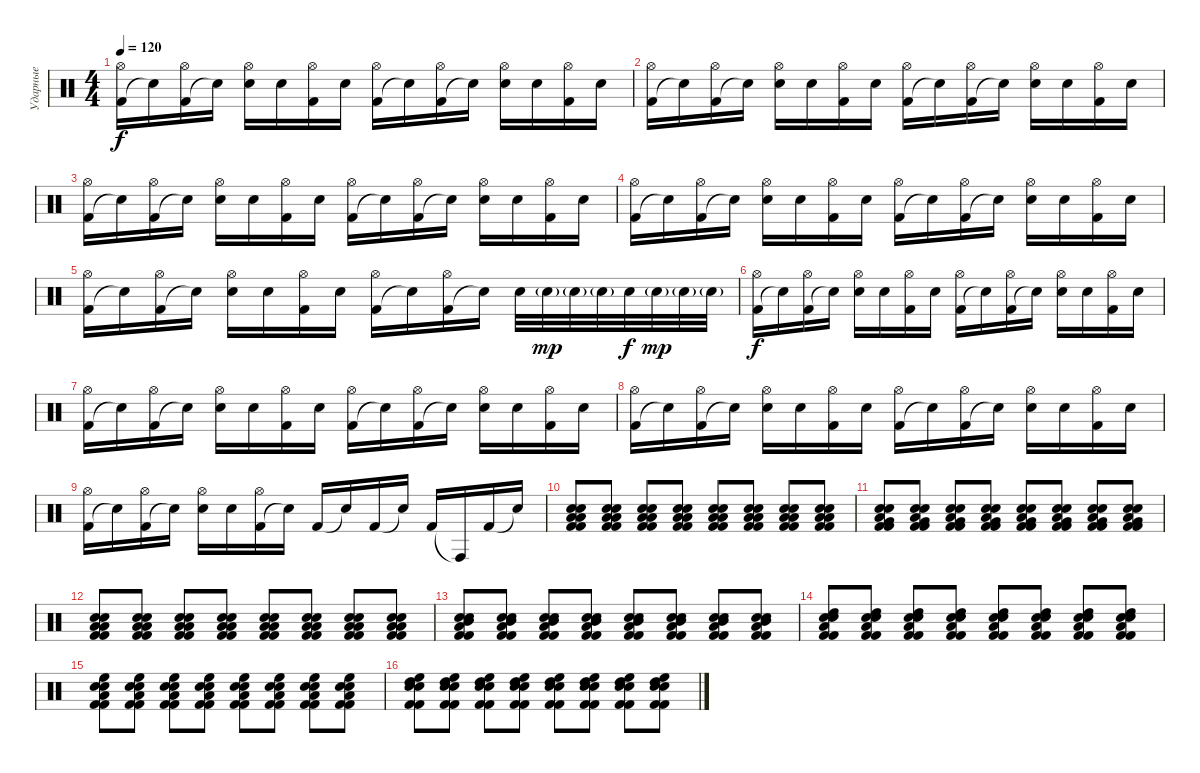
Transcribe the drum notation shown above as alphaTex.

\track ("Ударные" "Ударные") {instrument percussion}
\staff {score}
\articulation defaults
\ts (4 4)
\tempo 120
\clef neutral
\ks c
("Kick (hit) 2" "Hi-Hat (open)").16{dy f} "Snare (hit)"{t}.16 ("Kick (hit) 2" "Hi-Hat (open)").16 "Snare (hit)"{t}.16 ("Electric Snare (hit)" "Hi-Hat (open)").16 "Electric Snare (hit)".16 ("Kick (hit) 2" "Hi-Hat (open)").16 "Electric Snare (hit)".16 ("Kick (hit) 2" "Hi-Hat (open)").16 "Snare (hit)"{t}.16 ("Kick (hit) 2" "Hi-Hat (open)").16 "Snare (hit)"{t}.16 ("Electric Snare (hit)" "Hi-Hat (open)").16 "Electric Snare (hit)".16 ("Kick (hit) 2" "Hi-Hat (open)").16 "Electric Snare (hit)".16 |
("Kick (hit) 2" "Hi-Hat (open)").16 "Snare (hit)"{t}.16 ("Kick (hit) 2" "Hi-Hat (open)").16 "Snare (hit)"{t}.16 ("Electric Snare (hit)" "Hi-Hat (open)").16 "Electric Snare (hit)".16 ("Kick (hit) 2" "Hi-Hat (open)").16 "Electric Snare (hit)".16 ("Kick (hit) 2" "Hi-Hat (open)").16 "Snare (hit)"{t}.16 ("Kick (hit) 2" "Hi-Hat (open)").16 "Snare (hit)"{t}.16 ("Electric Snare (hit)" "Hi-Hat (open)").16 "Electric Snare (hit)".16 ("Kick (hit) 2" "Hi-Hat (open)").16 "Electric Snare (hit)".16 |
("Kick (hit) 2" "Hi-Hat (open)").16 "Snare (hit)"{t}.16 ("Kick (hit) 2" "Hi-Hat (open)").16 "Snare (hit)"{t}.16 ("Electric Snare (hit)" "Hi-Hat (open)").16 "Electric Snare (hit)".16 ("Kick (hit) 2" "Hi-Hat (open)").16 "Electric Snare (hit)".16 ("Kick (hit) 2" "Hi-Hat (open)").16 "Snare (hit)"{t}.16 ("Kick (hit) 2" "Hi-Hat (open)").16 "Snare (hit)"{t}.16 ("Electric Snare (hit)" "Hi-Hat (open)").16 "Electric Snare (hit)".16 ("Kick (hit) 2" "Hi-Hat (open)").16 "Electric Snare (hit)".16 |
("Kick (hit) 2" "Hi-Hat (open)").16 "Snare (hit)"{t}.16 ("Kick (hit) 2" "Hi-Hat (open)").16 "Snare (hit)"{t}.16 ("Electric Snare (hit)" "Hi-Hat (open)").16 "Electric Snare (hit)".16 ("Kick (hit) 2" "Hi-Hat (open)").16 "Electric Snare (hit)".16 ("Kick (hit) 2" "Hi-Hat (open)").16 "Snare (hit)"{t}.16 ("Kick (hit) 2" "Hi-Hat (open)").16 "Snare (hit)"{t}.16 ("Electric Snare (hit)" "Hi-Hat (open)").16 "Electric Snare (hit)".16 ("Kick (hit) 2" "Hi-Hat (open)").16 "Electric Snare (hit)".16 |
("Kick (hit) 2" "Hi-Hat (open)").16 "Snare (hit)"{t}.16 ("Kick (hit) 2" "Hi-Hat (open)").16 "Snare (hit)"{t}.16 ("Electric Snare (hit)" "Hi-Hat (open)").16 "Electric Snare (hit)".16 ("Kick (hit) 2" "Hi-Hat (open)").16 "Electric Snare (hit)".16 ("Kick (hit) 2" "Hi-Hat (open)").16 "Snare (hit)"{t}.16 ("Kick (hit) 2" "Hi-Hat (open)").16 "Snare (hit)"{t}.16 "Electric Snare (hit)".32 "Electric Snare (hit)"{g}.32{dy mp} "Electric Snare (hit)"{g}.32 "Electric Snare (hit)"{g}.32 "Electric Snare (hit)".32{dy f} "Electric Snare (hit)"{g}.32{dy mp} "Electric Snare (hit)"{g}.32 "Electric Snare (hit)"{g}.32 |
("Kick (hit) 2" "Hi-Hat (open)").16{dy f} "Snare (hit)"{t}.16 ("Kick (hit) 2" "Hi-Hat (open)").16 "Snare (hit)"{t}.16 ("Electric Snare (hit)" "Hi-Hat (open)").16 "Electric Snare (hit)".16 ("Kick (hit) 2" "Hi-Hat (open)").16 "Electric Snare (hit)".16 ("Kick (hit) 2" "Hi-Hat (open)").16 "Snare (hit)"{t}.16 ("Kick (hit) 2" "Hi-Hat (open)").16 "Snare (hit)"{t}.16 ("Electric Snare (hit)" "Hi-Hat (open)").16 "Electric Snare (hit)".16 ("Kick (hit) 2" "Hi-Hat (open)").16 "Electric Snare (hit)".16 |
("Kick (hit) 2" "Hi-Hat (open)").16 "Snare (hit)"{t}.16 ("Kick (hit) 2" "Hi-Hat (open)").16 "Snare (hit)"{t}.16 ("Electric Snare (hit)" "Hi-Hat (open)").16 "Electric Snare (hit)".16 ("Kick (hit) 2" "Hi-Hat (open)").16 "Electric Snare (hit)".16 ("Kick (hit) 2" "Hi-Hat (open)").16 "Snare (hit)"{t}.16 ("Kick (hit) 2" "Hi-Hat (open)").16 "Snare (hit)"{t}.16 ("Electric Snare (hit)" "Hi-Hat (open)").16 "Electric Snare (hit)".16 ("Kick (hit) 2" "Hi-Hat (open)").16 "Electric Snare (hit)".16 |
("Kick (hit) 2" "Hi-Hat (open)").16 "Snare (hit)"{t}.16 ("Kick (hit) 2" "Hi-Hat (open)").16 "Snare (hit)"{t}.16 ("Electric Snare (hit)" "Hi-Hat (open)").16 "Electric Snare (hit)".16 ("Kick (hit) 2" "Hi-Hat (open)").16 "Electric Snare (hit)".16 ("Kick (hit) 2" "Hi-Hat (open)").16 "Snare (hit)"{t}.16 ("Kick (hit) 2" "Hi-Hat (open)").16 "Snare (hit)"{t}.16 ("Electric Snare (hit)" "Hi-Hat (open)").16 "Electric Snare (hit)".16 ("Kick (hit) 2" "Hi-Hat (open)").16 "Electric Snare (hit)".16 |
("Kick (hit) 2" "Hi-Hat (open)").16 "Snare (hit)"{t}.16 ("Kick (hit) 2" "Hi-Hat (open)").16 "Snare (hit)"{t}.16 ("Electric Snare (hit)" "Hi-Hat (open)").16 "Electric Snare (hit)".16 ("Kick (hit) 2" "Hi-Hat (open)").16 "Electric Snare (hit)"{t}.16 "Kick (hit) 2".16 "Electric Snare (hit)"{t}.16 "Kick (hit) 2".16 "Electric Snare (hit)"{t}.16 "Kick (hit) 2".16 "Conga high (hit)"{t}.16 "Kick (hit) 2".16 "Electric Snare (hit)"{t}.16 |
("Kick (hit) 2" "Kick (hit) 2" "Electric Snare (hit)" "Electric Snare (hit)" "Low Floor Tom (hit)" "Low Floor Tom (hit)").8 ("Kick (hit) 2" "Kick (hit) 2" "Electric Snare (hit)" "Electric Snare (hit)" "Low Floor Tom (hit)" "Low Floor Tom (hit)").8 ("Kick (hit) 2" "Kick (hit) 2" "Electric Snare (hit)" "Electric Snare (hit)" "Low Floor Tom (hit)" "Low Floor Tom (hit)").8 ("Kick (hit) 2" "Kick (hit) 2" "Electric Snare (hit)" "Electric Snare (hit)" "Low Floor Tom (hit)" "Low Floor Tom (hit)").8 ("Kick (hit) 2" "Kick (hit) 2" "Electric Snare (hit)" "Electric Snare (hit)" "Low Floor Tom (hit)" "Low Floor Tom (hit)").8 ("Kick (hit) 2" "Kick (hit) 2" "Electric Snare (hit)" "Electric Snare (hit)" "Low Floor Tom (hit)" "Low Floor Tom (hit)").8 ("Kick (hit) 2" "Kick (hit) 2" "Electric Snare (hit)" "Electric Snare (hit)" "Low Floor Tom (hit)" "Low Floor Tom (hit)").8 ("Kick (hit) 2" "Kick (hit) 2" "Electric Snare (hit)" "Electric Snare (hit)" "Low Floor Tom (hit)" "Low Floor Tom (hit)").8 |
("Kick (hit) 2" "Kick (hit) 2" "Electric Snare (hit)" "Electric Snare (hit)" "Low Floor Tom (hit)" "Very Low Tom (hit)").8 ("Kick (hit) 2" "Kick (hit) 2" "Electric Snare (hit)" "Electric Snare (hit)" "Low Floor Tom (hit)" "Very Low Tom (hit)").8 ("Kick (hit) 2" "Kick (hit) 2" "Electric Snare (hit)" "Electric Snare (hit)" "Low Floor Tom (hit)" "Very Low Tom (hit)").8 ("Kick (hit) 2" "Kick (hit) 2" "Electric Snare (hit)" "Electric Snare (hit)" "Low Floor Tom (hit)" "Very Low Tom (hit)").8 ("Kick (hit) 2" "Kick (hit) 2" "Electric Snare (hit)" "Electric Snare (hit)" "Low Floor Tom (hit)" "Very Low Tom (hit)").8 ("Kick (hit) 2" "Kick (hit) 2" "Electric Snare (hit)" "Electric Snare (hit)" "Low Floor Tom (hit)" "Very Low Tom (hit)").8 ("Kick (hit) 2" "Kick (hit) 2" "Electric Snare (hit)" "Electric Snare (hit)" "Low Floor Tom (hit)" "Very Low Tom (hit)").8 ("Kick (hit) 2" "Kick (hit) 2" "Electric Snare (hit)" "Electric Snare (hit)" "Low Floor Tom (hit)" "Very Low Tom (hit)").8 |
("Kick (hit) 2" "Kick (hit) 2" "Electric Snare (hit)" "Electric Snare (hit)" "Low Floor Tom (hit)" "Low Tom (hit)").8 ("Kick (hit) 2" "Kick (hit) 2" "Electric Snare (hit)" "Electric Snare (hit)" "Low Floor Tom (hit)" "Low Tom (hit)").8 ("Kick (hit) 2" "Kick (hit) 2" "Electric Snare (hit)" "Electric Snare (hit)" "Low Floor Tom (hit)" "Low Tom (hit)").8 ("Kick (hit) 2" "Kick (hit) 2" "Electric Snare (hit)" "Electric Snare (hit)" "Low Floor Tom (hit)" "Low Tom (hit)").8 ("Kick (hit) 2" "Kick (hit) 2" "Electric Snare (hit)" "Electric Snare (hit)" "Low Floor Tom (hit)" "Low Tom (hit)").8 ("Kick (hit) 2" "Kick (hit) 2" "Electric Snare (hit)" "Electric Snare (hit)" "Low Floor Tom (hit)" "Low Tom (hit)").8 ("Kick (hit) 2" "Kick (hit) 2" "Electric Snare (hit)" "Electric Snare (hit)" "Low Floor Tom (hit)" "Low Tom (hit)").8 ("Kick (hit) 2" "Kick (hit) 2" "Electric Snare (hit)" "Electric Snare (hit)" "Low Floor Tom (hit)" "Low Tom (hit)").8 |
("Kick (hit) 2" "Kick (hit) 2" "Electric Snare (hit)" "Electric Snare (hit)" "Low Floor Tom (hit)" "Mid Tom (hit)").8 ("Kick (hit) 2" "Kick (hit) 2" "Electric Snare (hit)" "Electric Snare (hit)" "Low Floor Tom (hit)" "Mid Tom (hit)").8 ("Kick (hit) 2" "Kick (hit) 2" "Electric Snare (hit)" "Electric Snare (hit)" "Low Floor Tom (hit)" "Mid Tom (hit)").8 ("Kick (hit) 2" "Kick (hit) 2" "Electric Snare (hit)" "Electric Snare (hit)" "Low Floor Tom (hit)" "Mid Tom (hit)").8 ("Kick (hit) 2" "Kick (hit) 2" "Electric Snare (hit)" "Electric Snare (hit)" "Low Floor Tom (hit)" "Mid Tom (hit)").8 ("Kick (hit) 2" "Kick (hit) 2" "Electric Snare (hit)" "Electric Snare (hit)" "Low Floor Tom (hit)" "Mid Tom (hit)").8 ("Kick (hit) 2" "Kick (hit) 2" "Electric Snare (hit)" "Electric Snare (hit)" "Low Floor Tom (hit)" "Mid Tom (hit)").8 ("Kick (hit) 2" "Kick (hit) 2" "Electric Snare (hit)" "Electric Snare (hit)" "Low Floor Tom (hit)" "Mid Tom (hit)").8 |
("Kick (hit) 2" "Kick (hit) 2" "Electric Snare (hit)" "Electric Snare (hit)" "Low Floor Tom (hit)" "High Tom (hit)").8 ("Kick (hit) 2" "Kick (hit) 2" "Electric Snare (hit)" "Electric Snare (hit)" "Low Floor Tom (hit)" "High Tom (hit)").8 ("Kick (hit) 2" "Kick (hit) 2" "Electric Snare (hit)" "Electric Snare (hit)" "Low Floor Tom (hit)" "High Tom (hit)").8 ("Kick (hit) 2" "Kick (hit) 2" "Electric Snare (hit)" "Electric Snare (hit)" "Low Floor Tom (hit)" "High Tom (hit)").8 ("Kick (hit) 2" "Kick (hit) 2" "Electric Snare (hit)" "Electric Snare (hit)" "Low Floor Tom (hit)" "High Tom (hit)").8 ("Kick (hit) 2" "Kick (hit) 2" "Electric Snare (hit)" "Electric Snare (hit)" "Low Floor Tom (hit)" "High Tom (hit)").8 ("Kick (hit) 2" "Kick (hit) 2" "Electric Snare (hit)" "Electric Snare (hit)" "Low Floor Tom (hit)" "High Tom (hit)").8 ("Kick (hit) 2" "Kick (hit) 2" "Electric Snare (hit)" "Electric Snare (hit)" "Low Floor Tom (hit)" "High Tom (hit)").8 |
("Kick (hit) 2" "Kick (hit) 2" "Electric Snare (hit)" "Electric Snare (hit)" "Low Floor Tom (hit)" "High Floor Tom (hit)").8 ("Kick (hit) 2" "Kick (hit) 2" "Electric Snare (hit)" "Electric Snare (hit)" "Low Floor Tom (hit)" "High Floor Tom (hit)").8 ("Kick (hit) 2" "Kick (hit) 2" "Electric Snare (hit)" "Electric Snare (hit)" "Low Floor Tom (hit)" "High Floor Tom (hit)").8 ("Kick (hit) 2" "Kick (hit) 2" "Electric Snare (hit)" "Electric Snare (hit)" "Low Floor Tom (hit)" "High Floor Tom (hit)").8 ("Kick (hit) 2" "Kick (hit) 2" "Electric Snare (hit)" "Electric Snare (hit)" "Low Floor Tom (hit)" "High Floor Tom (hit)").8 ("Kick (hit) 2" "Kick (hit) 2" "Electric Snare (hit)" "Electric Snare (hit)" "Low Floor Tom (hit)" "High Floor Tom (hit)").8 ("Kick (hit) 2" "Kick (hit) 2" "Electric Snare (hit)" "Electric Snare (hit)" "Low Floor Tom (hit)" "High Floor Tom (hit)").8 ("Kick (hit) 2" "Kick (hit) 2" "Electric Snare (hit)" "Electric Snare (hit)" "Low Floor Tom (hit)" "High Floor Tom (hit)").8 |
("Kick (hit) 2" "Kick (hit) 2" "Electric Snare (hit)" "Electric Snare (hit)" "High Tom (hit)" "High Floor Tom (hit)").8 ("Kick (hit) 2" "Kick (hit) 2" "Electric Snare (hit)" "Electric Snare (hit)" "High Tom (hit)" "High Floor Tom (hit)").8 ("Kick (hit) 2" "Kick (hit) 2" "Electric Snare (hit)" "Electric Snare (hit)" "High Tom (hit)" "High Floor Tom (hit)").8 ("Kick (hit) 2" "Kick (hit) 2" "Electric Snare (hit)" "Electric Snare (hit)" "High Tom (hit)" "High Floor Tom (hit)").8 ("Kick (hit) 2" "Kick (hit) 2" "Electric Snare (hit)" "Electric Snare (hit)" "High Tom (hit)" "High Floor Tom (hit)").8 ("Kick (hit) 2" "Kick (hit) 2" "Electric Snare (hit)" "Electric Snare (hit)" "High Tom (hit)" "High Floor Tom (hit)").8 ("Kick (hit) 2" "Kick (hit) 2" "Electric Snare (hit)" "Electric Snare (hit)" "High Tom (hit)" "High Floor Tom (hit)").8 ("Kick (hit) 2" "Kick (hit) 2" "Electric Snare (hit)" "Electric Snare (hit)" "High Tom (hit)" "High Floor Tom (hit)").8
